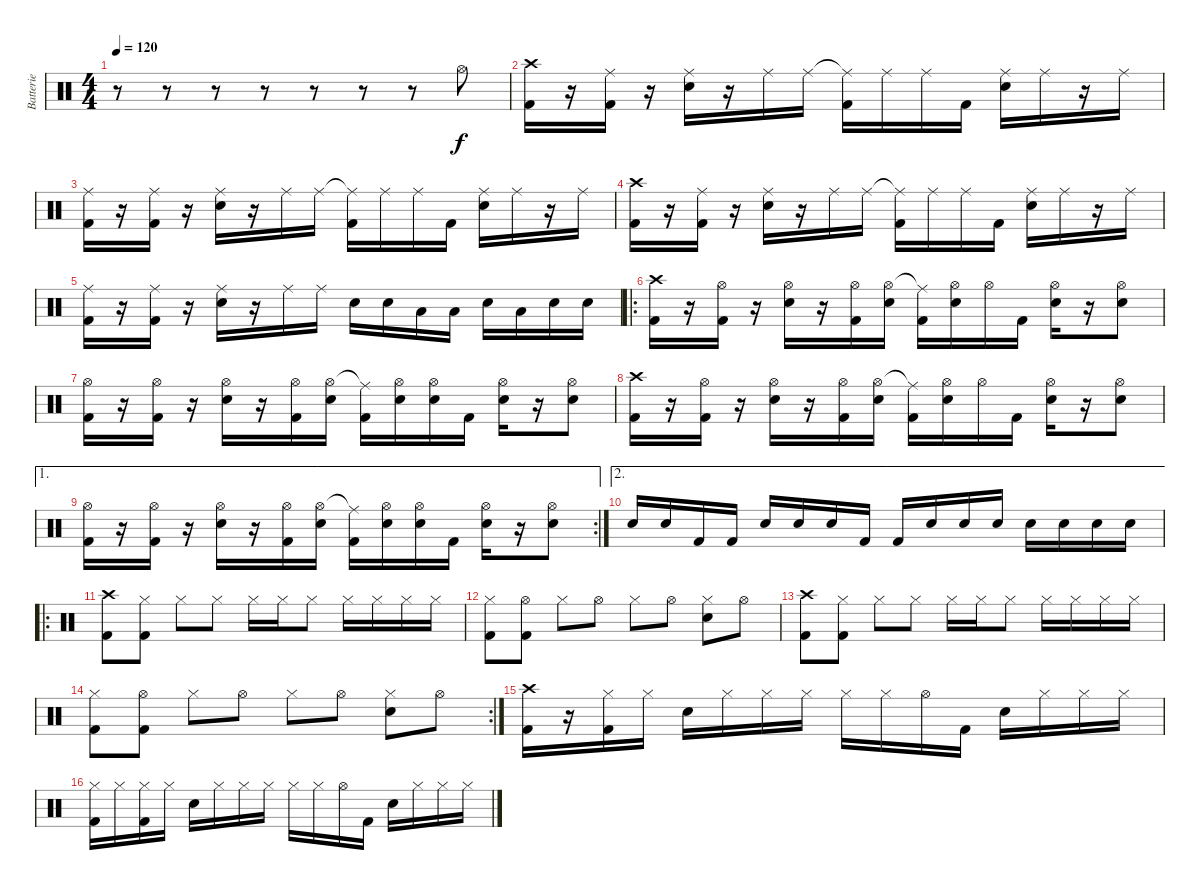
\track ("Batterie" "Batterie") {instrument percussion}
\staff {score}
\articulation defaults
\ts (4 4)
\tempo 120
\clef neutral
\ks c
r.8{dy f} r.8 r.8 r.8 r.8 r.8 r.8 "Hi-Hat (open)".8 |
("Crash high (hit)" "Kick (hit) 2").16 r.16 ("Ride (middle)" "Kick (hit) 2").16 r.16 ("Ride (middle)" "Snare (hit) 2").16 r.16 "Ride (middle)".16 "Ride (middle)".16 ("Ride (middle)"{t} "Kick (hit) 2").16 "Ride (middle)".16 "Ride (middle)".16 "Kick (hit) 2".16 ("Ride (middle)" "Snare (hit) 2").16 "Ride (middle)".16 r.16 "Ride (middle)".16 |
("Ride (middle)" "Kick (hit) 2").16 r.16 ("Ride (middle)" "Kick (hit) 2").16 r.16 ("Ride (middle)" "Snare (hit) 2").16 r.16 "Ride (middle)".16 "Ride (middle)".16 ("Ride (middle)"{t} "Kick (hit) 2").16 "Ride (middle)".16 "Ride (middle)".16 "Kick (hit) 2".16 ("Ride (middle)" "Snare (hit) 2").16 "Ride (middle)".16 r.16 "Ride (middle)".16 |
("Crash high (hit)" "Kick (hit) 2").16 r.16 ("Ride (middle)" "Kick (hit) 2").16 r.16 ("Ride (middle)" "Snare (hit) 2").16 r.16 "Ride (middle)".16 "Ride (middle)".16 ("Ride (middle)"{t} "Kick (hit) 2").16 "Ride (middle)".16 "Ride (middle)".16 "Kick (hit) 2".16 ("Ride (middle)" "Snare (hit) 2").16 "Ride (middle)".16 r.16 "Ride (middle)".16 |
("Ride (middle)" "Kick (hit) 2").16 r.16 ("Ride (middle)" "Kick (hit) 2").16 r.16 ("Ride (middle)" "Snare (hit) 2").16 r.16 "Ride (middle)".16 "Ride (middle)".16 "Snare (hit) 2".16 "Snare (hit) 2".16 "Low Tom (hit)".16 "Low Tom (hit)".16 "Snare (hit) 2".16 "Low Tom (hit)".16 "Snare (hit) 2".16 "Snare (hit) 2".16 |
\ro
("Crash high (hit)" "Kick (hit) 2").16 r.16 ("Hi-Hat (open)" "Kick (hit) 2").16 r.16 ("Hi-Hat (open)" "Snare (hit) 2").16 r.16 ("Hi-Hat (open)" "Kick (hit) 2").16 ("Hi-Hat (open)" "Snare (hit) 2").16 ("Ride (middle)"{t} "Kick (hit) 2").16 ("Hi-Hat (open)" "Snare (hit) 2").16 "Hi-Hat (open)".16 "Kick (hit) 2".16 ("Hi-Hat (open)" "Snare (hit) 2").16 r.16 ("Hi-Hat (open)" "Snare (hit) 2").8 |
("Hi-Hat (open)" "Kick (hit) 2").16 r.16 ("Hi-Hat (open)" "Kick (hit) 2").16 r.16 ("Hi-Hat (open)" "Snare (hit) 2").16 r.16 ("Hi-Hat (open)" "Kick (hit) 2").16 ("Hi-Hat (open)" "Snare (hit) 2").16 ("Ride (middle)"{t} "Kick (hit) 2").16 ("Hi-Hat (open)" "Snare (hit) 2").16 ("Hi-Hat (open)" "Snare (hit) 2").16 "Kick (hit) 2".16 ("Hi-Hat (open)" "Snare (hit) 2").16 r.16 ("Hi-Hat (open)" "Snare (hit) 2").8 |
("Crash high (hit)" "Kick (hit) 2").16 r.16 ("Hi-Hat (open)" "Kick (hit) 2").16 r.16 ("Hi-Hat (open)" "Snare (hit) 2").16 r.16 ("Hi-Hat (open)" "Kick (hit) 2").16 ("Hi-Hat (open)" "Snare (hit) 2").16 ("Ride (middle)"{t} "Kick (hit) 2").16 ("Hi-Hat (open)" "Snare (hit) 2").16 "Hi-Hat (open)".16 "Kick (hit) 2".16 ("Hi-Hat (open)" "Snare (hit) 2").16 r.16 ("Hi-Hat (open)" "Snare (hit) 2").8 |
\ae 1
\rc 2
("Hi-Hat (open)" "Kick (hit) 2").16 r.16 ("Hi-Hat (open)" "Kick (hit) 2").16 r.16 ("Hi-Hat (open)" "Snare (hit) 2").16 r.16 ("Hi-Hat (open)" "Kick (hit) 2").16 ("Hi-Hat (open)" "Snare (hit) 2").16 ("Ride (middle)"{t} "Kick (hit) 2").16 ("Hi-Hat (open)" "Snare (hit) 2").16 ("Hi-Hat (open)" "Snare (hit) 2").16 "Kick (hit) 2".16 ("Hi-Hat (open)" "Snare (hit) 2").16 r.16 ("Hi-Hat (open)" "Snare (hit) 2").8 |
\ae 2 "Snare (hit) 2".16 "Snare (hit) 2".16 "Kick (hit) 2".16 "Kick (hit) 2".16 "Snare (hit) 2".16 "Snare (hit) 2".16 "Snare (hit) 2".16 "Kick (hit) 2".16 "Kick (hit) 2".16 "Snare (hit) 2".16 "Snare (hit) 2".16 "Snare (hit) 2".16 "Snare (hit) 2".16 "Snare (hit) 2".16 "Snare (hit) 2".16 "Snare (hit) 2".16
|
\ro
("Crash high (hit)" "Kick (hit) 2").8 ("Hi-Hat (closed)" "Kick (hit) 2").8 "Hi-Hat (closed)".8 "Hi-Hat (closed)".8 "Hi-Hat (closed)".16 "Hi-Hat (closed)".16 "Hi-Hat (closed)".8 "Hi-Hat (closed)".16 "Hi-Hat (closed)".16 "Hi-Hat (closed)".16 "Hi-Hat (closed)".16 |
("Hi-Hat (closed)" "Kick (hit) 2").8 ("Hi-Hat (open)" "Kick (hit) 2").8 "Hi-Hat (closed)".8 "Hi-Hat (open)".8 "Hi-Hat (closed)".8 "Hi-Hat (open)".8 ("Hi-Hat (closed)" "Snare (hit) 2").8 "Hi-Hat (open)".8 |
("Crash high (hit)" "Kick (hit) 2").8 ("Hi-Hat (closed)" "Kick (hit) 2").8 "Hi-Hat (closed)".8 "Hi-Hat (closed)".8 "Hi-Hat (closed)".16 "Hi-Hat (closed)".16 "Hi-Hat (closed)".8 "Hi-Hat (closed)".16 "Hi-Hat (closed)".16 "Hi-Hat (closed)".16 "Hi-Hat (closed)".16 |
\rc 2
("Hi-Hat (closed)" "Kick (hit) 2").8 ("Hi-Hat (open)" "Kick (hit) 2").8 "Hi-Hat (closed)".8 "Hi-Hat (open)".8 "Hi-Hat (closed)".8 "Hi-Hat (open)".8 ("Hi-Hat (closed)" "Snare (hit) 2").8 "Hi-Hat (open)".8 |
("Crash high (hit)" "Kick (hit) 2").16 r.16 ("Hi-Hat (closed)" "Kick (hit) 2").16 "Hi-Hat (closed)".16 "Snare (hit) 2".16 "Hi-Hat (closed)".16 "Hi-Hat (closed)".16 "Hi-Hat (closed)".16 "Hi-Hat (closed)".16 "Hi-Hat (closed)".16 "Hi-Hat (open)".16 "Kick (hit) 2".16 "Snare (hit) 2".16 "Hi-Hat (closed)".16 "Hi-Hat (closed)".16 "Hi-Hat (closed)".16 |
("Hi-Hat (closed)" "Kick (hit) 2").16 "Hi-Hat (closed)".16 ("Hi-Hat (closed)" "Kick (hit) 2").16 "Hi-Hat (closed)".16 "Snare (hit) 2".16 "Hi-Hat (closed)".16 "Hi-Hat (closed)".16 "Hi-Hat (closed)".16 "Hi-Hat (closed)".16 "Hi-Hat (closed)".16 "Hi-Hat (open)".16 "Kick (hit) 2".16 "Snare (hit) 2".16 "Hi-Hat (closed)".16 "Hi-Hat (closed)".16 "Hi-Hat (closed)".16
